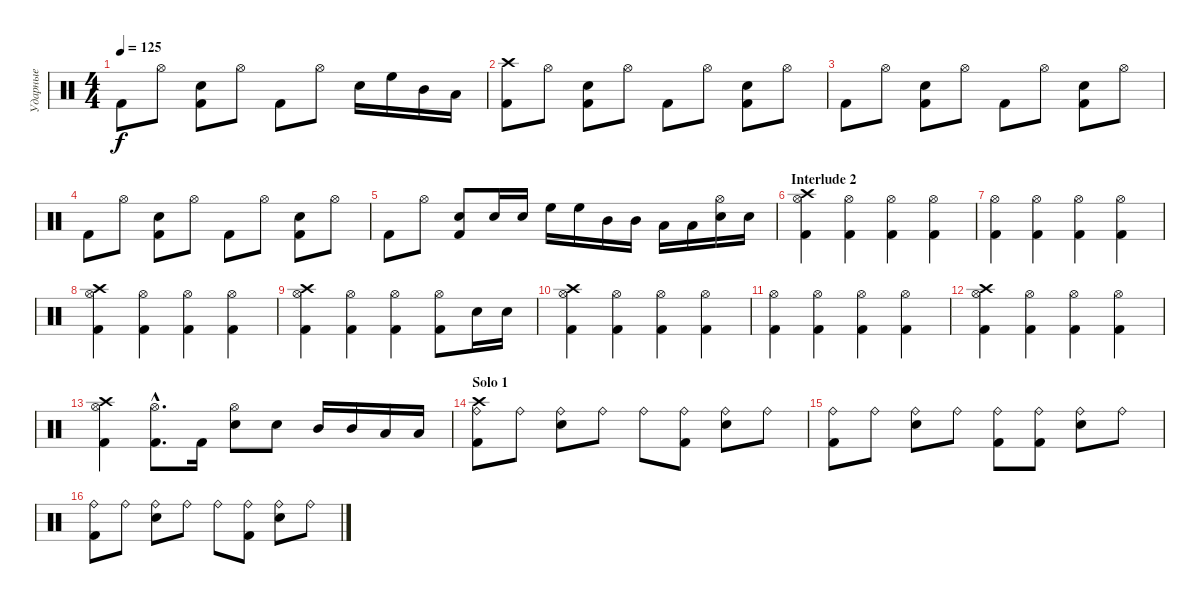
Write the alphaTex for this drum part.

\track ("Ударные" "Ударные") {instrument percussion}
\staff {score}
\articulation defaults
\ts (4 4)
\tempo 125
\clef neutral
\ks c "Kick (hit) 2".8{dy f} "Hi-Hat (open)".8
("Snare (hit) 2" "Kick (hit) 2").8 "Hi-Hat (open)".8 "Kick (hit) 2".8 "Hi-Hat (open)".8 "Snare (hit) 2".16 "High Floor Tom (hit)".16 "Mid Tom (hit)".16 "Low Tom (hit)".16 |
("Crash high (hit)" "Kick (hit) 2").8 "Hi-Hat (open)".8 ("Snare (hit) 2" "Kick (hit) 2").8 "Hi-Hat (open)".8 "Kick (hit) 2".8 "Hi-Hat (open)".8 ("Snare (hit) 2" "Kick (hit) 2").8 "Hi-Hat (open)".8 |
"Kick (hit) 2".8 "Hi-Hat (open)".8 ("Snare (hit) 2" "Kick (hit) 2").8 "Hi-Hat (open)".8 "Kick (hit) 2".8 "Hi-Hat (open)".8 ("Snare (hit) 2" "Kick (hit) 2").8 "Hi-Hat (open)".8 |
"Kick (hit) 2".8 "Hi-Hat (open)".8 ("Snare (hit) 2" "Kick (hit) 2").8 "Hi-Hat (open)".8 "Kick (hit) 2".8 "Hi-Hat (open)".8 ("Snare (hit) 2" "Kick (hit) 2").8 "Hi-Hat (open)".8 |
"Kick (hit) 2".8 "Hi-Hat (open)".8 ("Snare (hit) 2" "Kick (hit) 2").8 "Snare (hit) 2".16 "Snare (hit) 2".16 "High Floor Tom (hit)".16 "High Floor Tom (hit)".16 "Mid Tom (hit)".16 "Mid Tom (hit)".16 "Low Tom (hit)".16 "Low Tom (hit)".16 ("Hi-Hat (open)" "Snare (hit) 2").16 "Snare (hit) 2".16 |
\section ("" "Interlude 2")
("Hi-Hat (open)" "Crash high (hit)" "Kick (hit) 2").4 ("Hi-Hat (open)" "Kick (hit) 2").4 ("Hi-Hat (open)" "Kick (hit) 2").4 ("Hi-Hat (open)" "Kick (hit) 2").4 |
("Hi-Hat (open)" "Kick (hit) 2").4 ("Hi-Hat (open)" "Kick (hit) 2").4 ("Hi-Hat (open)" "Kick (hit) 2").4 ("Hi-Hat (open)" "Kick (hit) 2").4 |
("Hi-Hat (open)" "Crash high (hit)" "Kick (hit) 2").4 ("Hi-Hat (open)" "Kick (hit) 2").4 ("Hi-Hat (open)" "Kick (hit) 2").4 ("Hi-Hat (open)" "Kick (hit) 2").4 |
("Hi-Hat (open)" "Crash high (hit)" "Kick (hit) 2").4 ("Hi-Hat (open)" "Kick (hit) 2").4 ("Hi-Hat (open)" "Kick (hit) 2").4 ("Hi-Hat (open)" "Kick (hit) 2").8 "Snare (hit) 2".16 "Snare (hit) 2".16 |
("Hi-Hat (open)" "Crash high (hit)" "Kick (hit) 2").4 ("Hi-Hat (open)" "Kick (hit) 2").4 ("Hi-Hat (open)" "Kick (hit) 2").4 ("Hi-Hat (open)" "Kick (hit) 2").4 |
("Hi-Hat (open)" "Kick (hit) 2").4 ("Hi-Hat (open)" "Kick (hit) 2").4 ("Hi-Hat (open)" "Kick (hit) 2").4 ("Hi-Hat (open)" "Kick (hit) 2").4 |
("Hi-Hat (open)" "Crash high (hit)" "Kick (hit) 2").4 ("Hi-Hat (open)" "Kick (hit) 2").4 ("Hi-Hat (open)" "Kick (hit) 2").4 ("Hi-Hat (open)" "Kick (hit) 2").4 |
("Hi-Hat (open)" "Crash high (hit)" "Kick (hit) 2").4 ("Hi-Hat (open)"{hac} "Kick (hit) 2"{hac}).8{d} "Kick (hit) 2".16 ("Hi-Hat (open)" "Snare (hit) 2").8 "Snare (hit) 2".8 "Mid Tom (hit)".16 "Mid Tom (hit)".16 "Low Tom (hit)".16 "Low Tom (hit)".16 |
\section ("" "Solo 1")
("Ride (bell)" "Crash high (hit)" "Kick (hit) 2").8 "Ride (bell)".8 ("Ride (bell)" "Snare (hit) 2").8 "Ride (bell)".8 "Ride (bell)".8 ("Ride (bell)" "Kick (hit) 2").8 ("Ride (bell)" "Snare (hit) 2").8 "Ride (bell)".8 |
("Ride (bell)" "Kick (hit) 2").8 "Ride (bell)".8 ("Ride (bell)" "Snare (hit) 2").8 "Ride (bell)".8 ("Ride (bell)" "Kick (hit) 2").8 ("Ride (bell)" "Kick (hit) 2").8 ("Ride (bell)" "Snare (hit) 2").8 "Ride (bell)".8 |
("Ride (bell)" "Kick (hit) 2").8 "Ride (bell)".8 ("Ride (bell)" "Snare (hit) 2").8 "Ride (bell)".8 "Ride (bell)".8 ("Ride (bell)" "Kick (hit) 2").8 ("Ride (bell)" "Snare (hit) 2").8 "Ride (bell)".8
